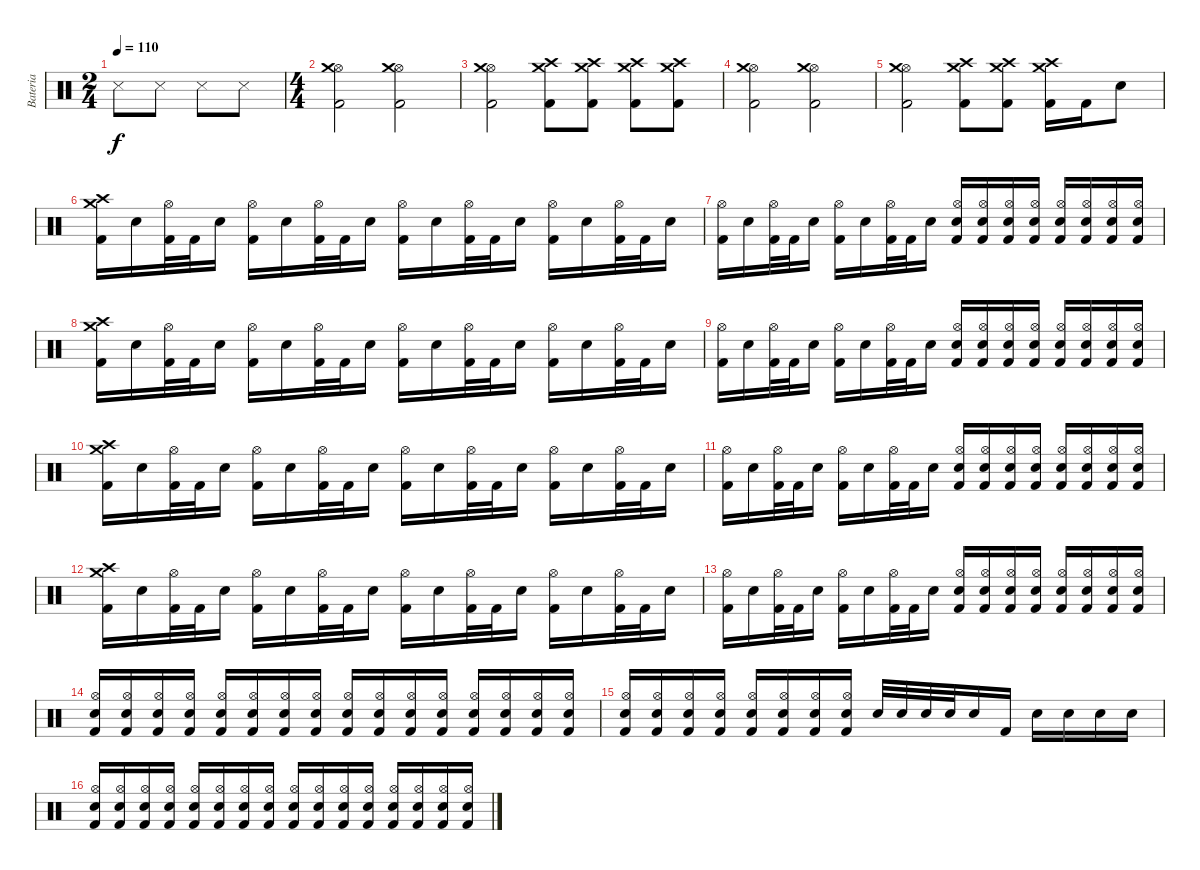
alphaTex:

\track ("Bateria" "Bateria") {instrument percussion}
\staff {score}
\articulation defaults
\ts (2 4)
\tempo 110
\clef neutral
\ks c "Snare (side stick) 3".8{dy f} "Snare (side stick) 3".8 "Snare (side stick) 3".8 "Snare (side stick) 3".8
|
\ts (4 4)
("Kick (hit) 2" "Hi-Hat (open)" "Crash medium (hit)").2 ("Kick (hit) 2" "Hi-Hat (open)" "Crash medium (hit)").2 |
("Kick (hit) 2" "Hi-Hat (open)" "Crash medium (hit)").2 ("Kick (hit) 2" "Crash medium (hit)" "Crash high (hit)").8 ("Kick (hit) 2" "Crash medium (hit)" "Crash high (hit)").8 ("Kick (hit) 2" "Crash medium (hit)" "Crash high (hit)").8 ("Kick (hit) 2" "Crash medium (hit)" "Crash high (hit)").8 |
("Kick (hit) 2" "Hi-Hat (open)" "Crash medium (hit)").2 ("Kick (hit) 2" "Hi-Hat (open)" "Crash medium (hit)").2 |
("Kick (hit) 2" "Hi-Hat (open)" "Crash medium (hit)").2 ("Kick (hit) 2" "Crash medium (hit)" "Crash high (hit)").8 ("Kick (hit) 2" "Crash medium (hit)" "Crash high (hit)").8 ("Kick (hit) 2" "Crash medium (hit)" "Crash high (hit)").16 "Kick (hit) 2".16 "Electric Snare (hit)".8 |
("Kick (hit) 2" "Crash medium (hit)" "Crash high (hit)").16 "Electric Snare (hit)".16 ("Kick (hit) 2" "Hi-Hat (open)").32 "Kick (hit) 2".32 "Electric Snare (hit)".16 ("Kick (hit) 2" "Hi-Hat (open)").16 "Electric Snare (hit)".16 ("Kick (hit) 2" "Hi-Hat (open)").32 "Kick (hit) 2".32 "Electric Snare (hit)".16 ("Kick (hit) 2" "Hi-Hat (open)").16 "Electric Snare (hit)".16 ("Kick (hit) 2" "Hi-Hat (open)").32 "Kick (hit) 2".32 "Electric Snare (hit)".16 ("Kick (hit) 2" "Hi-Hat (open)").16 "Electric Snare (hit)".16 ("Kick (hit) 2" "Hi-Hat (open)").32 "Kick (hit) 2".32 "Electric Snare (hit)".16 |
("Kick (hit) 2" "Hi-Hat (open)").16 "Electric Snare (hit)".16 ("Kick (hit) 2" "Hi-Hat (open)").32 "Kick (hit) 2".32 "Electric Snare (hit)".16 ("Kick (hit) 2" "Hi-Hat (open)").16 "Electric Snare (hit)".16 ("Kick (hit) 2" "Hi-Hat (open)").32 "Kick (hit) 2".32 "Electric Snare (hit)".16 ("Kick (hit) 2" "Hi-Hat (open)" "Electric Snare (hit)").16 ("Kick (hit) 2" "Hi-Hat (open)" "Electric Snare (hit)").16 ("Kick (hit) 2" "Hi-Hat (open)" "Electric Snare (hit)").16 ("Kick (hit) 2" "Hi-Hat (open)" "Electric Snare (hit)").16 ("Kick (hit) 2" "Hi-Hat (open)" "Electric Snare (hit)").16 ("Kick (hit) 2" "Hi-Hat (open)" "Electric Snare (hit)").16 ("Kick (hit) 2" "Hi-Hat (open)" "Electric Snare (hit)").16 ("Kick (hit) 2" "Hi-Hat (open)" "Electric Snare (hit)").16 |
("Kick (hit) 2" "Crash medium (hit)" "Crash high (hit)").16 "Electric Snare (hit)".16 ("Kick (hit) 2" "Hi-Hat (open)").32 "Kick (hit) 2".32 "Electric Snare (hit)".16 ("Kick (hit) 2" "Hi-Hat (open)").16 "Electric Snare (hit)".16 ("Kick (hit) 2" "Hi-Hat (open)").32 "Kick (hit) 2".32 "Electric Snare (hit)".16 ("Kick (hit) 2" "Hi-Hat (open)").16 "Electric Snare (hit)".16 ("Kick (hit) 2" "Hi-Hat (open)").32 "Kick (hit) 2".32 "Electric Snare (hit)".16 ("Kick (hit) 2" "Hi-Hat (open)").16 "Electric Snare (hit)".16 ("Kick (hit) 2" "Hi-Hat (open)").32 "Kick (hit) 2".32 "Electric Snare (hit)".16 |
("Kick (hit) 2" "Hi-Hat (open)").16 "Electric Snare (hit)".16 ("Kick (hit) 2" "Hi-Hat (open)").32 "Kick (hit) 2".32 "Electric Snare (hit)".16 ("Kick (hit) 2" "Hi-Hat (open)").16 "Electric Snare (hit)".16 ("Kick (hit) 2" "Hi-Hat (open)").32 "Kick (hit) 2".32 "Electric Snare (hit)".16 ("Kick (hit) 2" "Hi-Hat (open)" "Electric Snare (hit)").16 ("Kick (hit) 2" "Hi-Hat (open)" "Electric Snare (hit)").16 ("Kick (hit) 2" "Hi-Hat (open)" "Electric Snare (hit)").16 ("Kick (hit) 2" "Hi-Hat (open)" "Electric Snare (hit)").16 ("Kick (hit) 2" "Hi-Hat (open)" "Electric Snare (hit)").16 ("Kick (hit) 2" "Hi-Hat (open)" "Electric Snare (hit)").16 ("Kick (hit) 2" "Hi-Hat (open)" "Electric Snare (hit)").16 ("Kick (hit) 2" "Hi-Hat (open)" "Electric Snare (hit)").16 |
("Kick (hit) 2" "Crash medium (hit)" "Crash high (hit)").16 "Electric Snare (hit)".16 ("Kick (hit) 2" "Hi-Hat (open)").32 "Kick (hit) 2".32 "Electric Snare (hit)".16 ("Kick (hit) 2" "Hi-Hat (open)").16 "Electric Snare (hit)".16 ("Kick (hit) 2" "Hi-Hat (open)").32 "Kick (hit) 2".32 "Electric Snare (hit)".16 ("Kick (hit) 2" "Hi-Hat (open)").16 "Electric Snare (hit)".16 ("Kick (hit) 2" "Hi-Hat (open)").32 "Kick (hit) 2".32 "Electric Snare (hit)".16 ("Kick (hit) 2" "Hi-Hat (open)").16 "Electric Snare (hit)".16 ("Kick (hit) 2" "Hi-Hat (open)").32 "Kick (hit) 2".32 "Electric Snare (hit)".16 |
("Kick (hit) 2" "Hi-Hat (open)").16 "Electric Snare (hit)".16 ("Kick (hit) 2" "Hi-Hat (open)").32 "Kick (hit) 2".32 "Electric Snare (hit)".16 ("Kick (hit) 2" "Hi-Hat (open)").16 "Electric Snare (hit)".16 ("Kick (hit) 2" "Hi-Hat (open)").32 "Kick (hit) 2".32 "Electric Snare (hit)".16 ("Kick (hit) 2" "Hi-Hat (open)" "Electric Snare (hit)").16 ("Kick (hit) 2" "Hi-Hat (open)" "Electric Snare (hit)").16 ("Kick (hit) 2" "Hi-Hat (open)" "Electric Snare (hit)").16 ("Kick (hit) 2" "Hi-Hat (open)" "Electric Snare (hit)").16 ("Kick (hit) 2" "Hi-Hat (open)" "Electric Snare (hit)").16 ("Kick (hit) 2" "Hi-Hat (open)" "Electric Snare (hit)").16 ("Kick (hit) 2" "Hi-Hat (open)" "Electric Snare (hit)").16 ("Kick (hit) 2" "Hi-Hat (open)" "Electric Snare (hit)").16 |
("Kick (hit) 2" "Crash medium (hit)" "Crash high (hit)").16 "Electric Snare (hit)".16 ("Kick (hit) 2" "Hi-Hat (open)").32 "Kick (hit) 2".32 "Electric Snare (hit)".16 ("Kick (hit) 2" "Hi-Hat (open)").16 "Electric Snare (hit)".16 ("Kick (hit) 2" "Hi-Hat (open)").32 "Kick (hit) 2".32 "Electric Snare (hit)".16 ("Kick (hit) 2" "Hi-Hat (open)").16 "Electric Snare (hit)".16 ("Kick (hit) 2" "Hi-Hat (open)").32 "Kick (hit) 2".32 "Electric Snare (hit)".16 ("Kick (hit) 2" "Hi-Hat (open)").16 "Electric Snare (hit)".16 ("Kick (hit) 2" "Hi-Hat (open)").32 "Kick (hit) 2".32 "Electric Snare (hit)".16 |
("Kick (hit) 2" "Hi-Hat (open)").16 "Electric Snare (hit)".16 ("Kick (hit) 2" "Hi-Hat (open)").32 "Kick (hit) 2".32 "Electric Snare (hit)".16 ("Kick (hit) 2" "Hi-Hat (open)").16 "Electric Snare (hit)".16 ("Kick (hit) 2" "Hi-Hat (open)").32 "Kick (hit) 2".32 "Electric Snare (hit)".16 ("Kick (hit) 2" "Hi-Hat (open)" "Electric Snare (hit)").16 ("Kick (hit) 2" "Hi-Hat (open)" "Electric Snare (hit)").16 ("Kick (hit) 2" "Hi-Hat (open)" "Electric Snare (hit)").16 ("Kick (hit) 2" "Hi-Hat (open)" "Electric Snare (hit)").16 ("Kick (hit) 2" "Hi-Hat (open)" "Electric Snare (hit)").16 ("Kick (hit) 2" "Hi-Hat (open)" "Electric Snare (hit)").16 ("Kick (hit) 2" "Hi-Hat (open)" "Electric Snare (hit)").16 ("Kick (hit) 2" "Hi-Hat (open)" "Electric Snare (hit)").16 |
("Kick (hit) 2" "Hi-Hat (open)" "Electric Snare (hit)").16 ("Kick (hit) 2" "Hi-Hat (open)" "Electric Snare (hit)").16 ("Kick (hit) 2" "Hi-Hat (open)" "Electric Snare (hit)").16 ("Kick (hit) 2" "Hi-Hat (open)" "Electric Snare (hit)").16 ("Kick (hit) 2" "Hi-Hat (open)" "Electric Snare (hit)").16 ("Kick (hit) 2" "Hi-Hat (open)" "Electric Snare (hit)").16 ("Kick (hit) 2" "Hi-Hat (open)" "Electric Snare (hit)").16 ("Kick (hit) 2" "Hi-Hat (open)" "Electric Snare (hit)").16 ("Kick (hit) 2" "Hi-Hat (open)" "Electric Snare (hit)").16 ("Kick (hit) 2" "Hi-Hat (open)" "Electric Snare (hit)").16 ("Kick (hit) 2" "Hi-Hat (open)" "Electric Snare (hit)").16 ("Kick (hit) 2" "Hi-Hat (open)" "Electric Snare (hit)").16 ("Kick (hit) 2" "Hi-Hat (open)" "Electric Snare (hit)").16 ("Kick (hit) 2" "Hi-Hat (open)" "Electric Snare (hit)").16 ("Kick (hit) 2" "Hi-Hat (open)" "Electric Snare (hit)").16 ("Kick (hit) 2" "Hi-Hat (open)" "Electric Snare (hit)").16 |
("Kick (hit) 2" "Hi-Hat (open)" "Electric Snare (hit)").16 ("Kick (hit) 2" "Hi-Hat (open)" "Electric Snare (hit)").16 ("Kick (hit) 2" "Hi-Hat (open)" "Electric Snare (hit)").16 ("Kick (hit) 2" "Hi-Hat (open)" "Electric Snare (hit)").16 ("Kick (hit) 2" "Hi-Hat (open)" "Electric Snare (hit)").16 ("Kick (hit) 2" "Hi-Hat (open)" "Electric Snare (hit)").16 ("Kick (hit) 2" "Hi-Hat (open)" "Electric Snare (hit)").16 ("Kick (hit) 2" "Hi-Hat (open)" "Electric Snare (hit)").16 "Electric Snare (hit)".32 "Electric Snare (hit)".32 "Electric Snare (hit)".32 "Electric Snare (hit)".32 "Electric Snare (hit)".16 "Kick (hit) 2".16 "Electric Snare (hit)".16 "Electric Snare (hit)".16 "Electric Snare (hit)".16 "Electric Snare (hit)".16 |
("Kick (hit) 2" "Hi-Hat (open)" "Electric Snare (hit)").16 ("Kick (hit) 2" "Hi-Hat (open)" "Electric Snare (hit)").16 ("Kick (hit) 2" "Hi-Hat (open)" "Electric Snare (hit)").16 ("Kick (hit) 2" "Hi-Hat (open)" "Electric Snare (hit)").16 ("Kick (hit) 2" "Hi-Hat (open)" "Electric Snare (hit)").16 ("Kick (hit) 2" "Hi-Hat (open)" "Electric Snare (hit)").16 ("Kick (hit) 2" "Hi-Hat (open)" "Electric Snare (hit)").16 ("Kick (hit) 2" "Hi-Hat (open)" "Electric Snare (hit)").16 ("Kick (hit) 2" "Hi-Hat (open)" "Electric Snare (hit)").16 ("Kick (hit) 2" "Hi-Hat (open)" "Electric Snare (hit)").16 ("Kick (hit) 2" "Hi-Hat (open)" "Electric Snare (hit)").16 ("Kick (hit) 2" "Hi-Hat (open)" "Electric Snare (hit)").16 ("Kick (hit) 2" "Hi-Hat (open)" "Electric Snare (hit)").16 ("Kick (hit) 2" "Hi-Hat (open)" "Electric Snare (hit)").16 ("Kick (hit) 2" "Hi-Hat (open)" "Electric Snare (hit)").16 ("Kick (hit) 2" "Hi-Hat (open)" "Electric Snare (hit)").16
